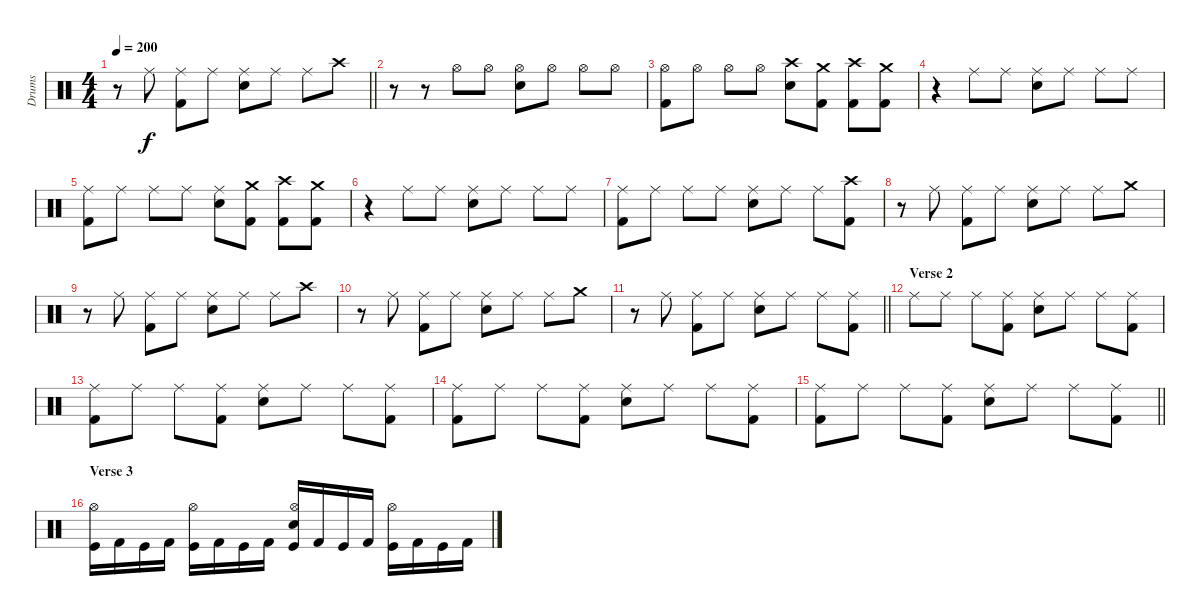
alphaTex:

\track ("Drums" "Drums") {instrument percussion}
\staff {score}
\articulation defaults
\ts (4 4)
\tempo 200
\clef neutral
\barLineRight lightlight
\ks c
r.8{dy f} "Ride (middle)".8 ("Ride (middle)" "Kick (hit) 2").8 "Ride (middle)".8 ("Ride (middle)" "Electric Snare (hit)").8 "Ride (middle)".8 "Ride (middle)".8 "Crash high (hit)".8 |
r.8 r.8 "Hi-Hat (open)".8 "Hi-Hat (open)".8 ("Hi-Hat (open)" "Electric Snare (hit)").8 "Hi-Hat (open)".8 "Hi-Hat (open)".8 "Hi-Hat (open)".8 |
("Hi-Hat (open)" "Kick (hit) 2").8 "Hi-Hat (open)".8 "Hi-Hat (open)".8 "Hi-Hat (open)".8 ("Crash high (hit)" "Electric Snare (hit)").8 ("Crash medium (hit)" "Kick (hit) 2").8 ("Crash high (hit)" "Kick (hit) 2").8 ("Crash medium (hit)" "Kick (hit) 2").8 |
r.4 "Ride (middle)".8 "Ride (middle)".8 ("Ride (middle)" "Electric Snare (hit)").8 "Ride (middle)".8 "Ride (middle)".8 "Ride (middle)".8 |
("Ride (middle)" "Kick (hit) 2").8 "Ride (middle)".8 "Ride (middle)".8 "Ride (middle)".8 ("Ride (middle)" "Electric Snare (hit)").8 ("Crash medium (hit)" "Kick (hit) 2").8 ("Crash high (hit)" "Kick (hit) 2").8 ("Crash medium (hit)" "Kick (hit) 2").8 |
r.4 "Ride (middle)".8 "Ride (middle)".8 ("Ride (middle)" "Electric Snare (hit)").8 "Ride (middle)".8 "Ride (middle)".8 "Ride (middle)".8 |
("Ride (middle)" "Kick (hit) 2").8 "Ride (middle)".8 "Ride (middle)".8 "Ride (middle)".8 ("Ride (middle)" "Electric Snare (hit)").8 "Ride (middle)".8 "Ride (middle)".8 ("Crash high (hit)" "Kick (hit) 2").8 |
r.8 "Ride (middle)".8 ("Ride (middle)" "Kick (hit) 2").8 "Ride (middle)".8 ("Ride (middle)" "Electric Snare (hit)").8 "Ride (middle)".8 "Ride (middle)".8 "Crash medium (hit)".8 |
r.8 "Ride (middle)".8 ("Ride (middle)" "Kick (hit) 2").8 "Ride (middle)".8 ("Ride (middle)" "Electric Snare (hit)").8 "Ride (middle)".8 "Ride (middle)".8 "Crash high (hit)".8 |
r.8 "Ride (middle)".8 ("Ride (middle)" "Kick (hit) 2").8 "Ride (middle)".8 ("Ride (middle)" "Electric Snare (hit)").8 "Ride (middle)".8 "Ride (middle)".8 "Crash medium (hit)".8 |
\barLineRight lightlight
r.8 "Ride (middle)".8 ("Ride (middle)" "Kick (hit) 2").8 "Ride (middle)".8 ("Ride (middle)" "Electric Snare (hit)").8 "Ride (middle)".8 "Ride (middle)".8 ("Ride (middle)" "Kick (hit) 2").8 |
\section ("" "Verse 2")
"Ride (middle)".8 "Ride (middle)".8 "Ride (middle)".8 ("Ride (middle)" "Kick (hit) 2").8 ("Ride (middle)" "Electric Snare (hit)").8 "Ride (middle)".8 "Ride (middle)".8 ("Ride (middle)" "Kick (hit) 2").8 |
("Ride (middle)" "Kick (hit) 2").8 "Ride (middle)".8 "Ride (middle)".8 ("Ride (middle)" "Kick (hit) 2").8 ("Ride (middle)" "Electric Snare (hit)").8 "Ride (middle)".8 "Ride (middle)".8 ("Ride (middle)" "Kick (hit) 2").8 |
("Ride (middle)" "Kick (hit) 2").8 "Ride (middle)".8 "Ride (middle)".8 ("Ride (middle)" "Kick (hit) 2").8 ("Ride (middle)" "Electric Snare (hit)").8 "Ride (middle)".8 "Ride (middle)".8 ("Ride (middle)" "Kick (hit) 2").8 |
\barLineRight lightlight
("Ride (middle)" "Kick (hit) 2").8 "Ride (middle)".8 "Ride (middle)".8 ("Ride (middle)" "Kick (hit) 2").8 ("Ride (middle)" "Electric Snare (hit)").8 "Ride (middle)".8 "Ride (middle)".8 ("Ride (middle)" "Kick (hit) 2").8 |
\section ("" "Verse 3")
("Hi-Hat (open)" "Kick (hit)").16 "Kick (hit) 2".16 "Kick (hit)".16 "Kick (hit) 2".16 ("Hi-Hat (open)" "Kick (hit)").16 "Kick (hit) 2".16 "Kick (hit)".16 "Kick (hit) 2".16 ("Hi-Hat (open)" "Electric Snare (hit)" "Kick (hit)").16 "Kick (hit) 2".16 "Kick (hit)".16 "Kick (hit) 2".16 ("Hi-Hat (open)" "Kick (hit)").16 "Kick (hit) 2".16 "Kick (hit)".16 "Kick (hit) 2".16
